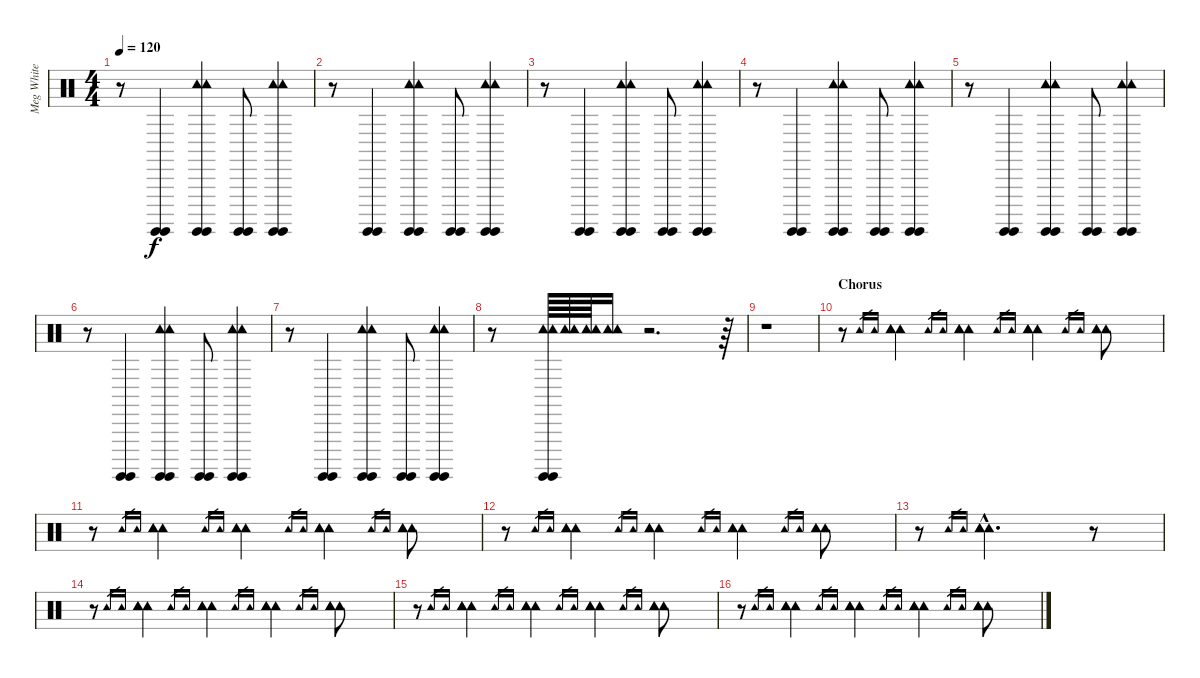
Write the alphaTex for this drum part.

\track ("Meg White" "Meg White") {instrument percussion}
\staff {score}
\articulation defaults
\ts (4 4)
\tempo 120
\clef neutral
\ks c
r.8{dy f} ("Surdo (hit)" "Surdo (hit)").4 ("Surdo (hit)" "Surdo (hit)" "Tambourine (hit)" "Tambourine (hit)").4 ("Surdo (hit)" "Surdo (hit)").8 ("Surdo (hit)" "Surdo (hit)" "Tambourine (hit)" "Tambourine (hit)").4 |
r.8 ("Surdo (hit)" "Surdo (hit)").4 ("Surdo (hit)" "Surdo (hit)" "Tambourine (hit)" "Tambourine (hit)").4 ("Surdo (hit)" "Surdo (hit)").8 ("Surdo (hit)" "Surdo (hit)" "Tambourine (hit)" "Tambourine (hit)").4 |
r.8 ("Surdo (hit)" "Surdo (hit)").4 ("Surdo (hit)" "Surdo (hit)" "Tambourine (hit)" "Tambourine (hit)").4 ("Surdo (hit)" "Surdo (hit)").8 ("Surdo (hit)" "Surdo (hit)" "Tambourine (hit)" "Tambourine (hit)").4 |
r.8 ("Surdo (hit)" "Surdo (hit)").4 ("Surdo (hit)" "Surdo (hit)" "Tambourine (hit)" "Tambourine (hit)").4 ("Surdo (hit)" "Surdo (hit)").8 ("Surdo (hit)" "Surdo (hit)" "Tambourine (hit)" "Tambourine (hit)").4 |
r.8 ("Surdo (hit)" "Surdo (hit)").4 ("Surdo (hit)" "Surdo (hit)" "Tambourine (hit)" "Tambourine (hit)").4 ("Surdo (hit)" "Surdo (hit)").8 ("Surdo (hit)" "Surdo (hit)" "Tambourine (hit)" "Tambourine (hit)").4 |
r.8 ("Surdo (hit)" "Surdo (hit)").4 ("Surdo (hit)" "Surdo (hit)" "Tambourine (hit)" "Tambourine (hit)").4 ("Surdo (hit)" "Surdo (hit)").8 ("Surdo (hit)" "Surdo (hit)" "Tambourine (hit)" "Tambourine (hit)").4 |
r.8 ("Surdo (hit)" "Surdo (hit)").4 ("Surdo (hit)" "Surdo (hit)" "Tambourine (hit)" "Tambourine (hit)").4 ("Surdo (hit)" "Surdo (hit)").8 ("Surdo (hit)" "Surdo (hit)" "Tambourine (hit)" "Tambourine (hit)").4 |
r.8 ("Surdo (hit)" "Surdo (hit)" "Tambourine (hit)" "Tambourine (hit)").64 ("Tambourine (hit)" "Tambourine (hit)").64 ("Tambourine (hit)" "Tambourine (hit)").64 ("Tambourine (hit)" "Tambourine (hit)").16 r.2{d} r.64 |
r.1 |
\section ("" "Chorus")
r.8 "Tambourine (hit)".16{gr} "Tambourine (hit)".16{gr} ("Tambourine (hit)" "Tambourine (hit)" "Tambourine (hit)").4 "Tambourine (hit)".16{gr} "Tambourine (hit)".16{gr} ("Tambourine (hit)" "Tambourine (hit)" "Tambourine (hit)").4 "Tambourine (hit)".16{gr} "Tambourine (hit)".16{gr} ("Tambourine (hit)" "Tambourine (hit)" "Tambourine (hit)").4 "Tambourine (hit)".16{gr} "Tambourine (hit)".16{gr} ("Tambourine (hit)" "Tambourine (hit)" "Tambourine (hit)").8 |
r.8 "Tambourine (hit)".16{gr} "Tambourine (hit)".16{gr} ("Tambourine (hit)" "Tambourine (hit)" "Tambourine (hit)").4 "Tambourine (hit)".16{gr} "Tambourine (hit)".16{gr} ("Tambourine (hit)" "Tambourine (hit)" "Tambourine (hit)").4 "Tambourine (hit)".16{gr} "Tambourine (hit)".16{gr} ("Tambourine (hit)" "Tambourine (hit)" "Tambourine (hit)").4 "Tambourine (hit)".16{gr} "Tambourine (hit)".16{gr} ("Tambourine (hit)" "Tambourine (hit)" "Tambourine (hit)").8 |
r.8 "Tambourine (hit)".16{gr} "Tambourine (hit)".16{gr} ("Tambourine (hit)" "Tambourine (hit)" "Tambourine (hit)").4 "Tambourine (hit)".16{gr} "Tambourine (hit)".16{gr} ("Tambourine (hit)" "Tambourine (hit)" "Tambourine (hit)").4 "Tambourine (hit)".16{gr} "Tambourine (hit)".16{gr} ("Tambourine (hit)" "Tambourine (hit)" "Tambourine (hit)").4 "Tambourine (hit)".16{gr} "Tambourine (hit)".16{gr} ("Tambourine (hit)" "Tambourine (hit)" "Tambourine (hit)").8 |
r.8 "Tambourine (hit)".16{gr} "Tambourine (hit)".16{gr} ("Tambourine (hit)"{hac} "Tambourine (hit)"{hac} "Tambourine (hit)"{hac}).2{d} r.8 |
r.8 "Tambourine (hit)".16{gr} "Tambourine (hit)".16{gr} ("Tambourine (hit)" "Tambourine (hit)" "Tambourine (hit)").4 "Tambourine (hit)".16{gr} "Tambourine (hit)".16{gr} ("Tambourine (hit)" "Tambourine (hit)" "Tambourine (hit)").4 "Tambourine (hit)".16{gr} "Tambourine (hit)".16{gr} ("Tambourine (hit)" "Tambourine (hit)" "Tambourine (hit)").4 "Tambourine (hit)".16{gr} "Tambourine (hit)".16{gr} ("Tambourine (hit)" "Tambourine (hit)" "Tambourine (hit)").8 |
r.8 "Tambourine (hit)".16{gr} "Tambourine (hit)".16{gr} ("Tambourine (hit)" "Tambourine (hit)" "Tambourine (hit)").4 "Tambourine (hit)".16{gr} "Tambourine (hit)".16{gr} ("Tambourine (hit)" "Tambourine (hit)" "Tambourine (hit)").4 "Tambourine (hit)".16{gr} "Tambourine (hit)".16{gr} ("Tambourine (hit)" "Tambourine (hit)" "Tambourine (hit)").4 "Tambourine (hit)".16{gr} "Tambourine (hit)".16{gr} ("Tambourine (hit)" "Tambourine (hit)" "Tambourine (hit)").8 |
r.8 "Tambourine (hit)".16{gr} "Tambourine (hit)".16{gr} ("Tambourine (hit)" "Tambourine (hit)" "Tambourine (hit)").4 "Tambourine (hit)".16{gr} "Tambourine (hit)".16{gr} ("Tambourine (hit)" "Tambourine (hit)" "Tambourine (hit)").4 "Tambourine (hit)".16{gr} "Tambourine (hit)".16{gr} ("Tambourine (hit)" "Tambourine (hit)" "Tambourine (hit)").4 "Tambourine (hit)".16{gr} "Tambourine (hit)".16{gr} ("Tambourine (hit)" "Tambourine (hit)" "Tambourine (hit)").8
